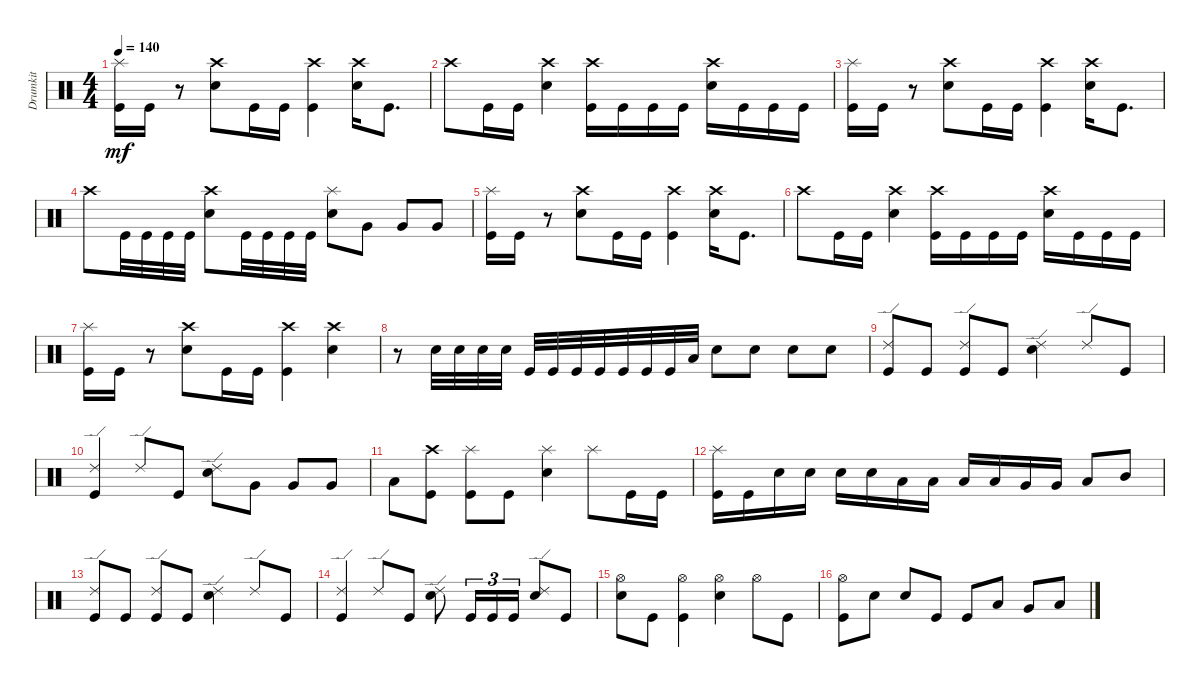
\track ("Drumkit" "Drumkit") {instrument percussion}
\staff {score}
\articulation defaults
\ts (4 4)
\tempo 140
\clef neutral
\ks c
("Splash (hit)" "Kick (hit)").16{dy mf} "Kick (hit)".16 r.8 ("Snare (hit) 2" "Crash high (hit)").8 "Kick (hit)".16 "Kick (hit)".16 ("Kick (hit)" "Crash high (hit)").4 ("Snare (hit) 2" "Crash high (hit)").16 "Kick (hit)".8{d} |
"Crash high (hit)".8 "Kick (hit)".16 "Kick (hit)".16 ("Snare (hit) 2" "Crash high (hit)").4 ("Kick (hit)" "Crash high (hit)").16 "Kick (hit)".16 "Kick (hit)".16 "Kick (hit)".16 ("Snare (hit) 2" "Crash high (hit)").16 "Kick (hit)".16 "Kick (hit)".16 "Kick (hit)".16 |
("Splash (hit)" "Kick (hit)").16 "Kick (hit)".16 r.8 ("Snare (hit) 2" "Crash high (hit)").8 "Kick (hit)".16 "Kick (hit)".16 ("Kick (hit)" "Crash high (hit)").4 ("Snare (hit) 2" "Crash high (hit)").16 "Kick (hit)".8{d} |
"Crash high (hit)".8 "Kick (hit)".32 "Kick (hit)".32 "Kick (hit)".32 "Kick (hit)".32 ("Snare (hit) 2" "Crash high (hit)").8 "Kick (hit)".32 "Kick (hit)".32 "Kick (hit)".32 "Kick (hit)".32 ("Snare (hit) 2" "Splash (hit)").8 "Very Low Tom (hit)".8 "Very Low Tom (hit)".8 "Very Low Tom (hit)".8 |
("Splash (hit)" "Kick (hit)").16 "Kick (hit)".16 r.8 ("Snare (hit) 2" "Crash high (hit)").8 "Kick (hit)".16 "Kick (hit)".16 ("Kick (hit)" "Crash high (hit)").4 ("Snare (hit) 2" "Crash high (hit)").16 "Kick (hit)".8{d} |
"Crash high (hit)".8 "Kick (hit)".16 "Kick (hit)".16 ("Snare (hit) 2" "Crash high (hit)").4 ("Kick (hit)" "Crash high (hit)").16 "Kick (hit)".16 "Kick (hit)".16 "Kick (hit)".16 ("Snare (hit) 2" "Crash high (hit)").16 "Kick (hit)".16 "Kick (hit)".16 "Kick (hit)".16 |
("Splash (hit)" "Kick (hit)").16 "Kick (hit)".16 r.8 ("Snare (hit) 2" "Crash high (hit)").8 "Kick (hit)".16 "Kick (hit)".16 ("Kick (hit)" "Crash high (hit)").4 ("Snare (hit) 2" "Crash high (hit)").4 |
r.8 "Snare (hit) 2".32 "Snare (hit) 2".32 "Snare (hit) 2".32 "Snare (hit) 2".32 "Kick (hit)".32 "Kick (hit)".32 "Kick (hit)".32 "Kick (hit)".32 "Kick (hit)".32 "Kick (hit)".32 "Kick (hit)".32 "Low Floor Tom (hit)".32 "Snare (hit) 2".8 "Snare (hit) 2".8 "Snare (hit) 2".8 "Snare (hit) 2".8 |
("Kick (hit)" "Ride (edge) 2").8 "Kick (hit)".8 ("Kick (hit)" "Ride (edge) 2").8 "Kick (hit)".8 ("Snare (hit) 2" "Ride (edge) 2").4 "Ride (edge) 2".8 "Kick (hit)".8 |
("Kick (hit)" "Ride (edge) 2").4 "Ride (edge) 2".8 "Kick (hit)".8 ("Snare (hit) 2" "Ride (edge) 2").8 "Very Low Tom (hit)".8 "Very Low Tom (hit)".8 "Very Low Tom (hit)".8 |
"Low Floor Tom (hit)".8 ("Kick (hit)" "Crash high (hit)").8 ("Kick (hit)" "Splash (hit)").8 "Kick (hit)".8 ("Snare (hit) 2" "Splash (hit)").4 "Splash (hit)".8 "Kick (hit)".16 "Kick (hit)".16 |
("Kick (hit)" "Splash (hit)").16 "Kick (hit)".16 "Snare (hit) 2".16 "Snare (hit) 2".16 "Snare (hit) 2".16 "Snare (hit) 2".16 "Low Tom (hit)".16 "Low Tom (hit)".16 "Low Tom (hit)".16 "Low Tom (hit)".16 "Very Low Tom (hit)".16 "Very Low Tom (hit)".16 "Low Floor Tom (hit)".8 "Mid Tom (hit)".8 |
("Kick (hit)" "Ride (edge) 2").8 "Kick (hit)".8 ("Kick (hit)" "Ride (edge) 2").8 "Kick (hit)".8 ("Snare (hit) 2" "Ride (edge) 2").4 "Ride (edge) 2".8 "Kick (hit)".8 |
("Kick (hit)" "Ride (edge) 2").4 "Ride (edge) 2".8 "Kick (hit)".8 ("Snare (hit) 2" "Ride (edge) 2").8 "Kick (hit)".16{tu (3 2)} "Kick (hit)".16{tu (3 2)} "Kick (hit)".16{tu (3 2)} ("Snare (hit) 2" "Ride (edge) 2").8 "Kick (hit)".8 |
("Snare (hit) 2" "Hi-Hat (open)").8 "Kick (hit)".8 ("Kick (hit)" "Hi-Hat (open)").4 ("Snare (hit) 2" "Hi-Hat (open)").4 "Hi-Hat (open)".8 "Kick (hit)".8 |
("Kick (hit)" "Hi-Hat (open)").8 "Snare (hit) 2".8 "Snare (hit) 2".8 "Kick (hit)".8 "Kick (hit)".8 "Low Tom (hit)".8 "Very Low Tom (hit)".8 "Low Floor Tom (hit)".8
